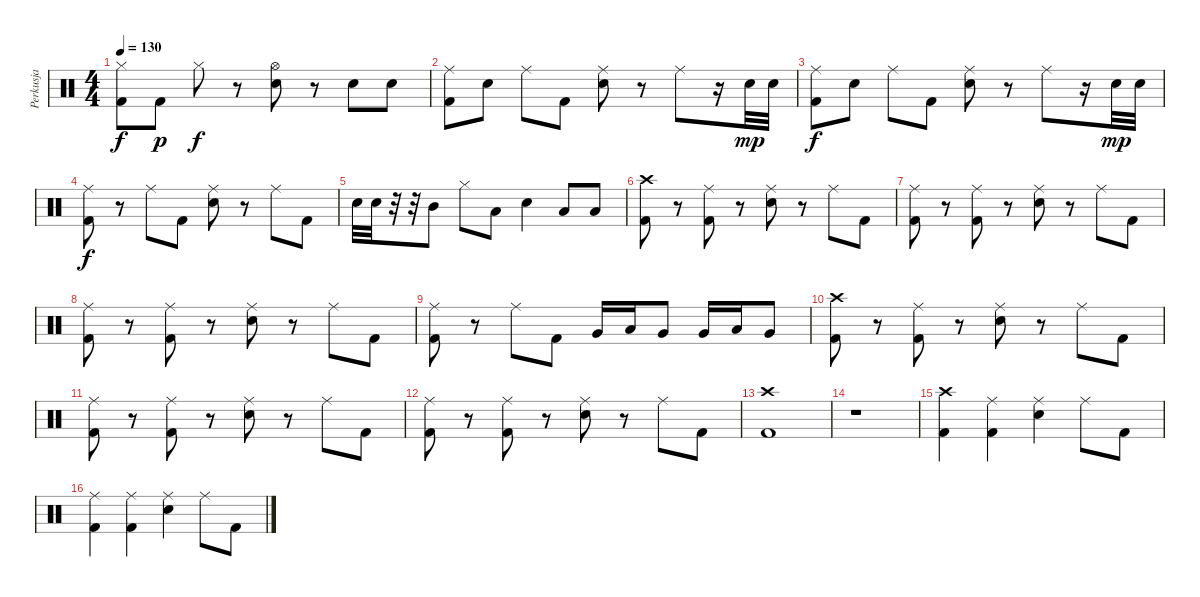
\track ("Perkusja" "Perkusja") {instrument percussion}
\staff {score}
\articulation defaults
\ts (4 4)
\tempo 130
\clef neutral
\ks c
("Hi-Hat (closed)" "Kick (hit) 2").8{dy f} "Kick (hit) 2".8{dy p} "Hi-Hat (closed)".8{dy f} r.8 ("Hi-Hat (open)" "Snare (hit) 2").8 r.8 "Snare (hit) 2".8 "Snare (hit) 2".8 |
("Ride (middle)" "Kick (hit) 2").8 "Snare (hit) 2".8 "Ride (middle)".8 "Kick (hit) 2".8 ("Ride (middle)" "Snare (hit) 2").8 r.8 "Ride (middle)".8 r.16 "Snare (hit) 2".32{dy mp} "Snare (hit) 2".32 |
("Ride (middle)" "Kick (hit) 2").8{dy f} "Snare (hit) 2".8 "Ride (middle)".8 "Kick (hit) 2".8 ("Ride (middle)" "Snare (hit) 2").8 r.8 "Ride (middle)".8 r.16 "Snare (hit) 2".32{dy mp} "Snare (hit) 2".32 |
("Ride (middle)" "Kick (hit) 2").8{dy f} r.8 "Ride (middle)".8 "Kick (hit) 2".8 ("Ride (middle)" "Snare (hit) 2").8 r.8 "Ride (middle)".8 "Kick (hit) 2".8 |
"Snare (hit) 2".32{volume 16} "Snare (hit) 2".32 r.32 r.32 "Mid Tom (hit)".8 "Hi-Hat (closed)".8 "Low Tom (hit)".8 "Snare (hit) 2".4 "Low Floor Tom (hit)".8 "Low Floor Tom (hit)".8 |
("Crash high (hit)" "Kick (hit) 2").8 r.8 ("Ride (middle)" "Kick (hit) 2").8 r.8 ("Ride (middle)" "Snare (hit) 2").8 r.8 "Ride (middle)".8 "Kick (hit) 2".8 |
("Ride (middle)" "Kick (hit) 2").8 r.8 ("Ride (middle)" "Kick (hit) 2").8 r.8 ("Ride (middle)" "Snare (hit) 2").8 r.8 "Ride (middle)".8 "Kick (hit) 2".8 |
("Ride (middle)" "Kick (hit) 2").8 r.8 ("Ride (middle)" "Kick (hit) 2").8 r.8 ("Ride (middle)" "Snare (hit) 2").8 r.8 "Ride (middle)".8 "Kick (hit) 2".8 |
("Ride (middle)" "Kick (hit) 2").8 r.8 "Ride (middle)".8 "Kick (hit) 2".8 "Very Low Tom (hit)".16 "Low Floor Tom (hit)".16 "Very Low Tom (hit)".8 "Very Low Tom (hit)".16 "Low Floor Tom (hit)".16 "Very Low Tom (hit)".8 |
("Crash high (hit)" "Kick (hit) 2").8 r.8 ("Ride (middle)" "Kick (hit) 2").8 r.8 ("Ride (middle)" "Snare (hit) 2").8 r.8 "Ride (middle)".8 "Kick (hit) 2".8 |
("Ride (middle)" "Kick (hit) 2").8 r.8 ("Ride (middle)" "Kick (hit) 2").8 r.8 ("Ride (middle)" "Snare (hit) 2").8 r.8 "Ride (middle)".8 "Kick (hit) 2".8 |
("Ride (middle)" "Kick (hit) 2").8 r.8 ("Ride (middle)" "Kick (hit) 2").8 r.8 ("Ride (middle)" "Snare (hit) 2").8 r.8 "Ride (middle)".8 "Kick (hit) 2".8 |
("Crash high (hit)" "Kick (hit) 2").1 |
r.1 |
("Crash high (hit)" "Kick (hit) 2").4 ("Ride (middle)" "Kick (hit) 2").4 ("Ride (middle)" "Snare (hit) 2").4 "Ride (middle)".8 "Kick (hit) 2".8 |
("Ride (middle)" "Kick (hit) 2").4 ("Ride (middle)" "Kick (hit) 2").4 ("Ride (middle)" "Snare (hit) 2").4 "Ride (middle)".8 "Kick (hit) 2".8
